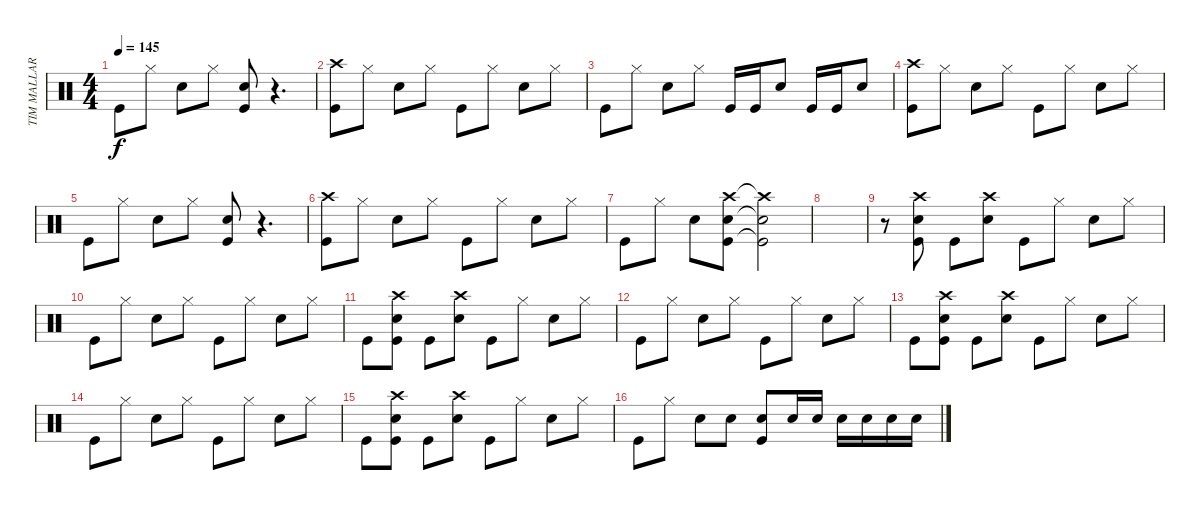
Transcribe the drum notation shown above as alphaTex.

\track ("TIM MALLARE - drums" "TIM MALLAR") {instrument percussion}
\staff {score}
\articulation defaults
\ts (4 4)
\tempo 145
\clef neutral
\ks c "Kick (hit)".8{dy f} "Hi-Hat (closed)".8 "Electric Snare (hit)".8 "Hi-Hat (closed)".8
("Electric Snare (hit)" "Kick (hit)").8 r.4{d} |
("Crash high (hit)" "Kick (hit)").8 "Hi-Hat (closed)".8 "Electric Snare (hit)".8 "Hi-Hat (closed)".8 "Kick (hit)".8 "Hi-Hat (closed)".8 "Electric Snare (hit)".8 "Hi-Hat (closed)".8 |
"Kick (hit)".8 "Hi-Hat (closed)".8 "Electric Snare (hit)".8 "Hi-Hat (closed)".8 "Kick (hit)".16 "Kick (hit)".16 "Electric Snare (hit)".8 "Kick (hit)".16 "Kick (hit)".16 "Electric Snare (hit)".8 |
("Crash high (hit)" "Kick (hit)").8 "Hi-Hat (closed)".8 "Electric Snare (hit)".8 "Hi-Hat (closed)".8 "Kick (hit)".8 "Hi-Hat (closed)".8 "Electric Snare (hit)".8 "Hi-Hat (closed)".8 |
"Kick (hit)".8 "Hi-Hat (closed)".8 "Electric Snare (hit)".8 "Hi-Hat (closed)".8 ("Electric Snare (hit)" "Kick (hit)").8 r.4{d} |
("Crash high (hit)" "Kick (hit)").8 "Hi-Hat (closed)".8 "Electric Snare (hit)".8 "Hi-Hat (closed)".8 "Kick (hit)".8 "Hi-Hat (closed)".8 "Electric Snare (hit)".8 "Hi-Hat (closed)".8 |
"Kick (hit)".8 "Hi-Hat (closed)".8 "Electric Snare (hit)".8 ("Crash high (hit)" "Electric Snare (hit)" "Kick (hit)").8 ("Crash high (hit)"{t} "Electric Snare (hit)"{t} "Kick (hit)"{t}).2 |
|
r.8 ("Crash high (hit)" "Electric Snare (hit)" "Kick (hit)").8 "Kick (hit)".8 ("Crash high (hit)" "Electric Snare (hit)").8 "Kick (hit)".8 "Hi-Hat (closed)".8 "Electric Snare (hit)".8 "Hi-Hat (closed)".8 |
"Kick (hit)".8 "Hi-Hat (closed)".8 "Electric Snare (hit)".8 "Hi-Hat (closed)".8 "Kick (hit)".8 "Hi-Hat (closed)".8 "Electric Snare (hit)".8 "Hi-Hat (closed)".8 |
"Kick (hit)".8 ("Crash high (hit)" "Electric Snare (hit)" "Kick (hit)").8 "Kick (hit)".8 ("Crash high (hit)" "Electric Snare (hit)").8 "Kick (hit)".8 "Hi-Hat (closed)".8 "Electric Snare (hit)".8 "Hi-Hat (closed)".8 |
"Kick (hit)".8 "Hi-Hat (closed)".8 "Electric Snare (hit)".8 "Hi-Hat (closed)".8 "Kick (hit)".8 "Hi-Hat (closed)".8 "Electric Snare (hit)".8 "Hi-Hat (closed)".8 |
"Kick (hit)".8 ("Crash high (hit)" "Electric Snare (hit)" "Kick (hit)").8 "Kick (hit)".8 ("Crash high (hit)" "Electric Snare (hit)").8 "Kick (hit)".8 "Hi-Hat (closed)".8 "Electric Snare (hit)".8 "Hi-Hat (closed)".8 |
"Kick (hit)".8 "Hi-Hat (closed)".8 "Electric Snare (hit)".8 "Hi-Hat (closed)".8 "Kick (hit)".8 "Hi-Hat (closed)".8 "Electric Snare (hit)".8 "Hi-Hat (closed)".8 |
"Kick (hit)".8 ("Crash high (hit)" "Electric Snare (hit)" "Kick (hit)").8 "Kick (hit)".8 ("Crash high (hit)" "Electric Snare (hit)").8 "Kick (hit)".8 "Hi-Hat (closed)".8 "Electric Snare (hit)".8 "Hi-Hat (closed)".8 |
"Kick (hit)".8 "Hi-Hat (closed)".8 "Electric Snare (hit)".8 "Electric Snare (hit)".8 ("Electric Snare (hit)" "Kick (hit)").8 "Electric Snare (hit)".16 "Electric Snare (hit)".16 "Electric Snare (hit)".16 "Electric Snare (hit)".16 "Electric Snare (hit)".16 "Electric Snare (hit)".16
